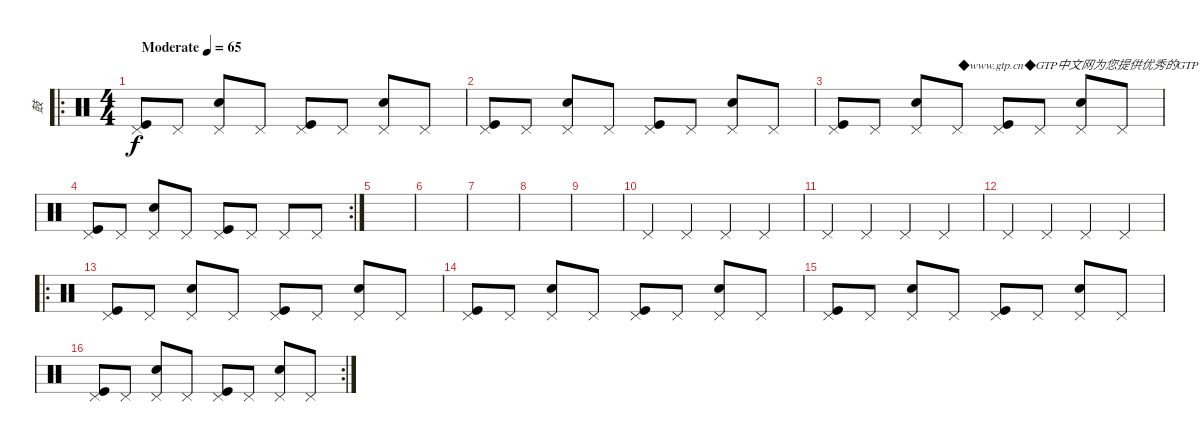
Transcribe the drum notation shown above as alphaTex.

\track ("鼓" "鼓") {instrument percussion}
\staff {score}
\articulation defaults
\ro
\ts (4 4)
\tempo (65 "Moderate")
\clef neutral
\ks c
("Pedal Hi-Hat (hit)" "Kick (hit)").8{dy f} "Pedal Hi-Hat (hit)".8 ("Pedal Hi-Hat (hit)" "Electric Snare (hit)").8 "Pedal Hi-Hat (hit)".8 ("Pedal Hi-Hat (hit)" "Kick (hit)").8 "Pedal Hi-Hat (hit)".8 ("Pedal Hi-Hat (hit)" "Electric Snare (hit)").8 "Pedal Hi-Hat (hit)".8 |
("Pedal Hi-Hat (hit)" "Kick (hit)").8 "Pedal Hi-Hat (hit)".8 ("Pedal Hi-Hat (hit)" "Electric Snare (hit)").8 "Pedal Hi-Hat (hit)".8 ("Pedal Hi-Hat (hit)" "Kick (hit)").8 "Pedal Hi-Hat (hit)".8 ("Pedal Hi-Hat (hit)" "Electric Snare (hit)").8 "Pedal Hi-Hat (hit)".8 |
("Pedal Hi-Hat (hit)" "Kick (hit)").8 "Pedal Hi-Hat (hit)".8 ("Pedal Hi-Hat (hit)" "Electric Snare (hit)").8 "Pedal Hi-Hat (hit)".8{txt "◆www.gtp.cn◆GTP中文网为您提供优秀的GTP！"} ("Pedal Hi-Hat (hit)" "Kick (hit)").8 "Pedal Hi-Hat (hit)".8 ("Pedal Hi-Hat (hit)" "Electric Snare (hit)").8 "Pedal Hi-Hat (hit)".8 |
\rc 2
("Pedal Hi-Hat (hit)" "Kick (hit)").8 "Pedal Hi-Hat (hit)".8 ("Pedal Hi-Hat (hit)" "Electric Snare (hit)").8 "Pedal Hi-Hat (hit)".8 ("Pedal Hi-Hat (hit)" "Kick (hit)").8 "Pedal Hi-Hat (hit)".8 "Pedal Hi-Hat (hit)".8 "Pedal Hi-Hat (hit)".8 |
|
|
|
|
|
"Pedal Hi-Hat (hit)".4 "Pedal Hi-Hat (hit)".4 "Pedal Hi-Hat (hit)".4 "Pedal Hi-Hat (hit)".4 |
"Pedal Hi-Hat (hit)".4 "Pedal Hi-Hat (hit)".4 "Pedal Hi-Hat (hit)".4 "Pedal Hi-Hat (hit)".4 |
"Pedal Hi-Hat (hit)".4 "Pedal Hi-Hat (hit)".4 "Pedal Hi-Hat (hit)".4 "Pedal Hi-Hat (hit)".4 |
\ro
("Pedal Hi-Hat (hit)" "Kick (hit)").8 "Pedal Hi-Hat (hit)".8 ("Pedal Hi-Hat (hit)" "Electric Snare (hit)").8 "Pedal Hi-Hat (hit)".8 ("Pedal Hi-Hat (hit)" "Kick (hit)").8 "Pedal Hi-Hat (hit)".8 ("Pedal Hi-Hat (hit)" "Electric Snare (hit)").8 "Pedal Hi-Hat (hit)".8 |
("Pedal Hi-Hat (hit)" "Kick (hit)").8 "Pedal Hi-Hat (hit)".8 ("Pedal Hi-Hat (hit)" "Electric Snare (hit)").8 "Pedal Hi-Hat (hit)".8 ("Pedal Hi-Hat (hit)" "Kick (hit)").8 "Pedal Hi-Hat (hit)".8 ("Pedal Hi-Hat (hit)" "Electric Snare (hit)").8 "Pedal Hi-Hat (hit)".8 |
("Pedal Hi-Hat (hit)" "Kick (hit)").8 "Pedal Hi-Hat (hit)".8 ("Pedal Hi-Hat (hit)" "Electric Snare (hit)").8 "Pedal Hi-Hat (hit)".8 ("Pedal Hi-Hat (hit)" "Kick (hit)").8 "Pedal Hi-Hat (hit)".8 ("Pedal Hi-Hat (hit)" "Electric Snare (hit)").8 "Pedal Hi-Hat (hit)".8 |
\rc 2
("Pedal Hi-Hat (hit)" "Kick (hit)").8 "Pedal Hi-Hat (hit)".8 ("Pedal Hi-Hat (hit)" "Electric Snare (hit)").8 "Pedal Hi-Hat (hit)".8 ("Pedal Hi-Hat (hit)" "Kick (hit)").8 "Pedal Hi-Hat (hit)".8 ("Pedal Hi-Hat (hit)" "Electric Snare (hit)").8 "Pedal Hi-Hat (hit)".8
